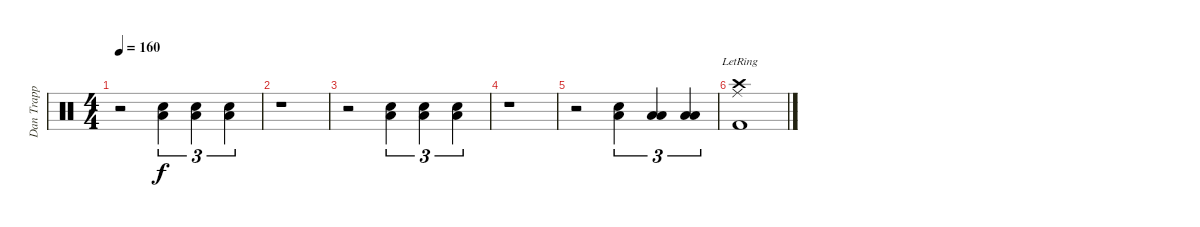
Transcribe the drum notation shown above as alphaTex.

\track ("Dan Trapp" "Dan Trapp") {instrument percussion}
\staff {score}
\articulation defaults
\ts (4 4)
\tempo 160
\clef neutral
\ks c
r.2{dy f} ("Snare (hit) 2" "Low Floor Tom (hit)").4{tu (3 2)} ("Snare (hit) 2" "Low Floor Tom (hit)").4{tu (3 2)} ("Snare (hit) 2" "Low Floor Tom (hit)").4{tu (3 2)} |
r.1 |
r.2 ("Snare (hit) 2" "Low Floor Tom (hit)").4{tu (3 2)} ("Snare (hit) 2" "Low Floor Tom (hit)").4{tu (3 2)} ("Snare (hit) 2" "Low Floor Tom (hit)").4{tu (3 2)} |
r.1 |
r.2 ("Snare (hit) 2" "Low Floor Tom (hit)").4{tu (3 2)} ("Low Tom (hit)" "Low Floor Tom (hit)").4{tu (3 2)} ("Low Tom (hit)" "Low Floor Tom (hit)").4{tu (3 2)} |
("Crash high (hit)"{lr} "Ride (middle)"{lr} "Kick (hit) 2").1
